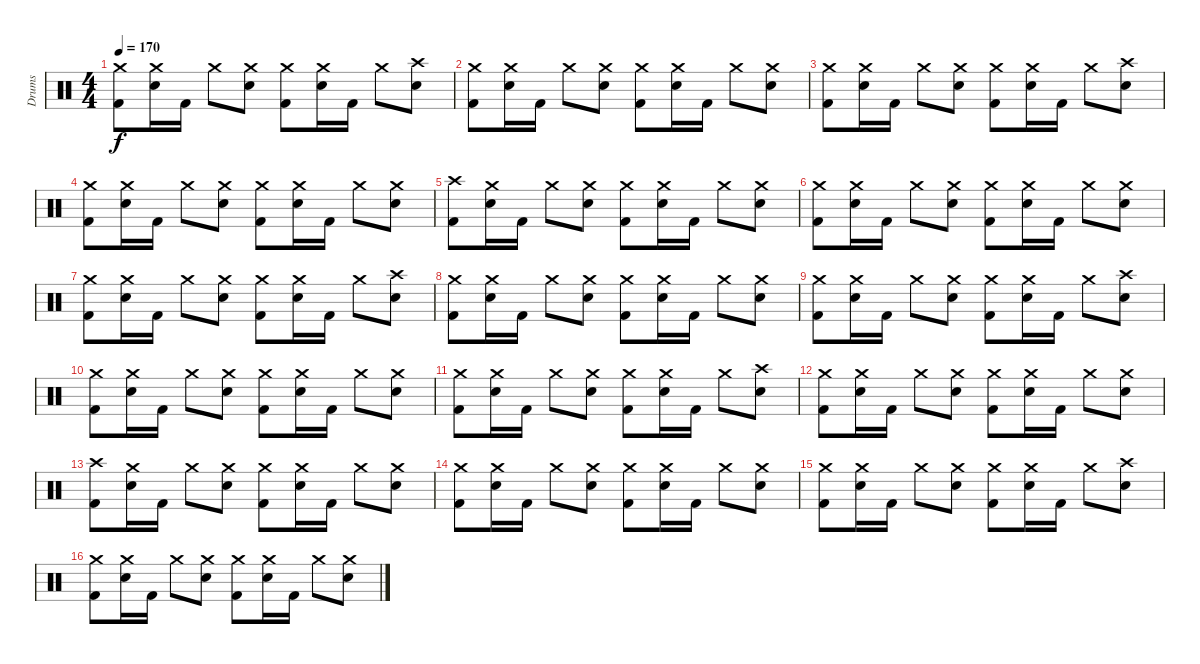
\track ("Drums" "Drums") {instrument percussion}
\staff {score}
\articulation defaults
\ts (4 4)
\tempo 170
\clef neutral
\ks c
("Crash medium (hit)" "Kick (hit) 2").8{dy f} ("Crash medium (hit)" "Electric Snare (hit)").16 "Kick (hit) 2".16 "Crash medium (hit)".8 ("Crash medium (hit)" "Electric Snare (hit)").8 ("Crash medium (hit)" "Kick (hit) 2").8 ("Crash medium (hit)" "Electric Snare (hit)").16 "Kick (hit) 2".16 "Crash medium (hit)".8 ("Crash high (hit)" "Electric Snare (hit)").8 |
("Crash medium (hit)" "Kick (hit) 2").8 ("Crash medium (hit)" "Electric Snare (hit)").16 "Kick (hit) 2".16 "Crash medium (hit)".8 ("Crash medium (hit)" "Electric Snare (hit)").8 ("Crash medium (hit)" "Kick (hit) 2").8 ("Crash medium (hit)" "Electric Snare (hit)").16 "Kick (hit) 2".16 "Crash medium (hit)".8 ("Crash medium (hit)" "Electric Snare (hit)").8 |
("Crash medium (hit)" "Kick (hit) 2").8 ("Crash medium (hit)" "Electric Snare (hit)").16 "Kick (hit) 2".16 "Crash medium (hit)".8 ("Crash medium (hit)" "Electric Snare (hit)").8 ("Crash medium (hit)" "Kick (hit) 2").8 ("Crash medium (hit)" "Electric Snare (hit)").16 "Kick (hit) 2".16 "Crash medium (hit)".8 ("Crash high (hit)" "Electric Snare (hit)").8 |
("Crash medium (hit)" "Kick (hit) 2").8 ("Crash medium (hit)" "Electric Snare (hit)").16 "Kick (hit) 2".16 "Crash medium (hit)".8 ("Crash medium (hit)" "Electric Snare (hit)").8 ("Crash medium (hit)" "Kick (hit) 2").8 ("Crash medium (hit)" "Electric Snare (hit)").16 "Kick (hit) 2".16 "Crash medium (hit)".8 ("Crash medium (hit)" "Electric Snare (hit)").8 |
("Crash high (hit)" "Kick (hit) 2").8 ("Crash medium (hit)" "Electric Snare (hit)").16 "Kick (hit) 2".16 "Crash medium (hit)".8 ("Crash medium (hit)" "Electric Snare (hit)").8 ("Crash medium (hit)" "Kick (hit) 2").8 ("Crash medium (hit)" "Electric Snare (hit)").16 "Kick (hit) 2".16 "Crash medium (hit)".8 ("Crash medium (hit)" "Electric Snare (hit)").8 |
("Crash medium (hit)" "Kick (hit) 2").8 ("Crash medium (hit)" "Electric Snare (hit)").16 "Kick (hit) 2".16 "Crash medium (hit)".8 ("Crash medium (hit)" "Electric Snare (hit)").8 ("Crash medium (hit)" "Kick (hit) 2").8 ("Crash medium (hit)" "Electric Snare (hit)").16 "Kick (hit) 2".16 "Crash medium (hit)".8 ("Crash medium (hit)" "Electric Snare (hit)").8 |
("Crash medium (hit)" "Kick (hit) 2").8 ("Crash medium (hit)" "Electric Snare (hit)").16 "Kick (hit) 2".16 "Crash medium (hit)".8 ("Crash medium (hit)" "Electric Snare (hit)").8 ("Crash medium (hit)" "Kick (hit) 2").8 ("Crash medium (hit)" "Electric Snare (hit)").16 "Kick (hit) 2".16 "Crash medium (hit)".8 ("Crash high (hit)" "Electric Snare (hit)").8 |
("Crash medium (hit)" "Kick (hit) 2").8 ("Crash medium (hit)" "Electric Snare (hit)").16 "Kick (hit) 2".16 "Crash medium (hit)".8 ("Crash medium (hit)" "Electric Snare (hit)").8 ("Crash medium (hit)" "Kick (hit) 2").8 ("Crash medium (hit)" "Electric Snare (hit)").16 "Kick (hit) 2".16 "Crash medium (hit)".8 ("Crash medium (hit)" "Electric Snare (hit)").8 |
("Crash medium (hit)" "Kick (hit) 2").8 ("Crash medium (hit)" "Electric Snare (hit)").16 "Kick (hit) 2".16 "Crash medium (hit)".8 ("Crash medium (hit)" "Electric Snare (hit)").8 ("Crash medium (hit)" "Kick (hit) 2").8 ("Crash medium (hit)" "Electric Snare (hit)").16 "Kick (hit) 2".16 "Crash medium (hit)".8 ("Crash high (hit)" "Electric Snare (hit)").8 |
("Crash medium (hit)" "Kick (hit) 2").8 ("Crash medium (hit)" "Electric Snare (hit)").16 "Kick (hit) 2".16 "Crash medium (hit)".8 ("Crash medium (hit)" "Electric Snare (hit)").8 ("Crash medium (hit)" "Kick (hit) 2").8 ("Crash medium (hit)" "Electric Snare (hit)").16 "Kick (hit) 2".16 "Crash medium (hit)".8 ("Crash medium (hit)" "Electric Snare (hit)").8 |
("Crash medium (hit)" "Kick (hit) 2").8 ("Crash medium (hit)" "Electric Snare (hit)").16 "Kick (hit) 2".16 "Crash medium (hit)".8 ("Crash medium (hit)" "Electric Snare (hit)").8 ("Crash medium (hit)" "Kick (hit) 2").8 ("Crash medium (hit)" "Electric Snare (hit)").16 "Kick (hit) 2".16 "Crash medium (hit)".8 ("Crash high (hit)" "Electric Snare (hit)").8 |
("Crash medium (hit)" "Kick (hit) 2").8 ("Crash medium (hit)" "Electric Snare (hit)").16 "Kick (hit) 2".16 "Crash medium (hit)".8 ("Crash medium (hit)" "Electric Snare (hit)").8 ("Crash medium (hit)" "Kick (hit) 2").8 ("Crash medium (hit)" "Electric Snare (hit)").16 "Kick (hit) 2".16 "Crash medium (hit)".8 ("Crash medium (hit)" "Electric Snare (hit)").8 |
("Crash high (hit)" "Kick (hit) 2").8 ("Crash medium (hit)" "Electric Snare (hit)").16 "Kick (hit) 2".16 "Crash medium (hit)".8 ("Crash medium (hit)" "Electric Snare (hit)").8 ("Crash medium (hit)" "Kick (hit) 2").8 ("Crash medium (hit)" "Electric Snare (hit)").16 "Kick (hit) 2".16 "Crash medium (hit)".8 ("Crash medium (hit)" "Electric Snare (hit)").8 |
("Crash medium (hit)" "Kick (hit) 2").8 ("Crash medium (hit)" "Electric Snare (hit)").16 "Kick (hit) 2".16 "Crash medium (hit)".8 ("Crash medium (hit)" "Electric Snare (hit)").8 ("Crash medium (hit)" "Kick (hit) 2").8 ("Crash medium (hit)" "Electric Snare (hit)").16 "Kick (hit) 2".16 "Crash medium (hit)".8 ("Crash medium (hit)" "Electric Snare (hit)").8 |
("Crash medium (hit)" "Kick (hit) 2").8 ("Crash medium (hit)" "Electric Snare (hit)").16 "Kick (hit) 2".16 "Crash medium (hit)".8 ("Crash medium (hit)" "Electric Snare (hit)").8 ("Crash medium (hit)" "Kick (hit) 2").8 ("Crash medium (hit)" "Electric Snare (hit)").16 "Kick (hit) 2".16 "Crash medium (hit)".8 ("Crash high (hit)" "Electric Snare (hit)").8 |
("Crash medium (hit)" "Kick (hit) 2").8 ("Crash medium (hit)" "Electric Snare (hit)").16 "Kick (hit) 2".16 "Crash medium (hit)".8 ("Crash medium (hit)" "Electric Snare (hit)").8 ("Crash medium (hit)" "Kick (hit) 2").8 ("Crash medium (hit)" "Electric Snare (hit)").16 "Kick (hit) 2".16 "Crash medium (hit)".8 ("Crash medium (hit)" "Electric Snare (hit)").8
